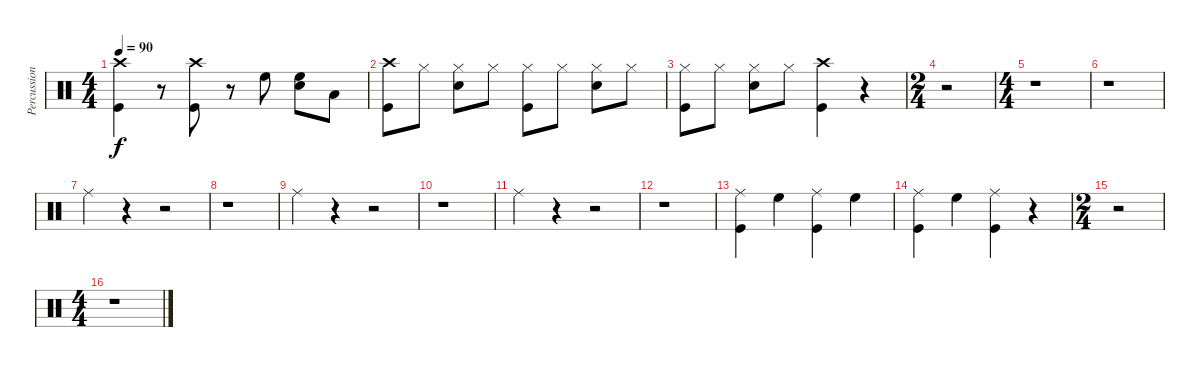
\track ("Percussion" "Percussion") {instrument percussion}
\staff {score}
\articulation defaults
\ts (4 4)
\tempo 90
\clef neutral
\ks c
("Crash high (hit)" "Kick (hit)").4{dy f} r.8 ("Crash high (hit)" "Kick (hit)").8 r.8 "High Floor Tom (hit)".8 ("High Floor Tom (hit)" "Snare (hit) 2").8 "Low Floor Tom (hit)".8 |
("Crash high (hit)" "Kick (hit)").8 "Hi-Hat (closed)".8 ("Hi-Hat (closed)" "Snare (hit) 2").8 "Hi-Hat (closed)".8 ("Hi-Hat (closed)" "Kick (hit)").8 "Hi-Hat (closed)".8 ("Hi-Hat (closed)" "Snare (hit) 2").8 "Hi-Hat (closed)".8 |
("Hi-Hat (closed)" "Kick (hit)").8 "Hi-Hat (closed)".8 ("Hi-Hat (closed)" "Snare (hit) 2").8 "Hi-Hat (closed)".8 ("Crash high (hit)" "Kick (hit)").4 r.4 |
\ts (2 4)
r.2 |
\ts (4 4)
r.1 |
r.1 |
"Ride (middle)".4 r.4 r.2 |
r.1 |
"Ride (middle)".4 r.4 r.2 |
r.1 |
"Ride (middle)".4 r.4 r.2 |
r.1 |
("Ride (middle)" "Kick (hit)").4 "High Floor Tom (hit)".4 ("Ride (middle)" "Kick (hit)").4 "High Floor Tom (hit)".4 |
("Ride (middle)" "Kick (hit)").4 "High Floor Tom (hit)".4 ("Ride (middle)" "Kick (hit)").4 r.4 |
\ts (2 4)
r.2 |
\ts (4 4)
r.1
